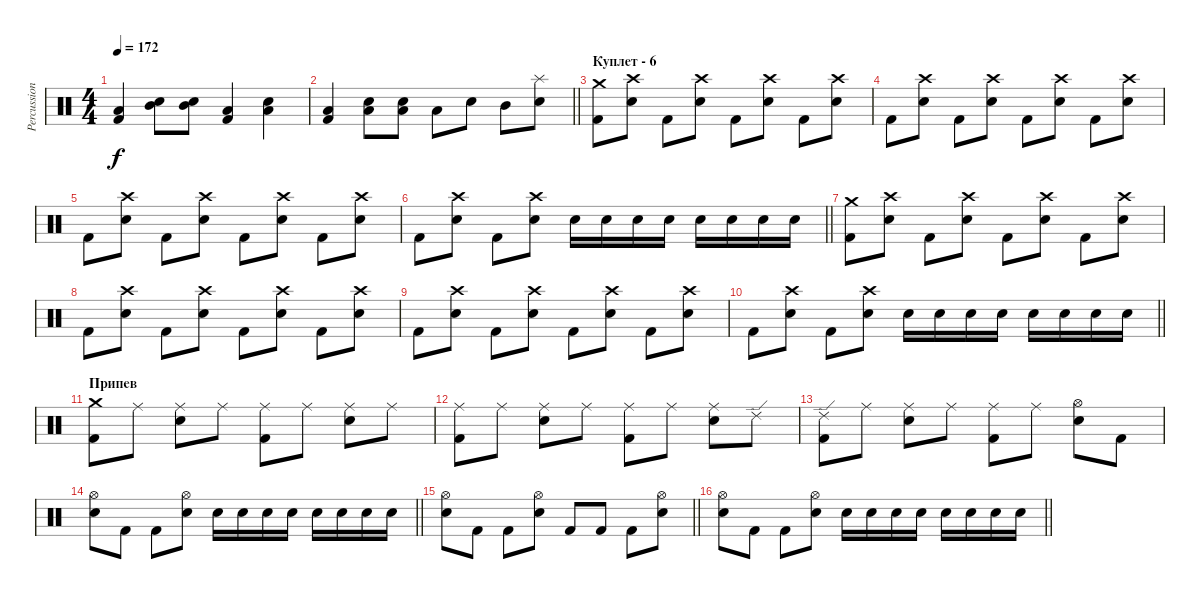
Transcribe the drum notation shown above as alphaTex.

\track ("Percussion" "Percussion") {instrument percussion}
\staff {score}
\articulation defaults
\ts (4 4)
\tempo 172
\clef neutral
\ks c
("Low Floor Tom (hit)" "Kick (hit) 2").4{dy f} ("Mid Tom (hit)" "Snare (hit) 2").8 ("Mid Tom (hit)" "Snare (hit) 2").8 ("Low Tom (hit)" "Kick (hit) 2").4 ("Low Floor Tom (hit)" "Snare (hit) 2").4 |
\barLineRight lightlight
("Low Tom (hit)" "Kick (hit) 2").4 ("Low Floor Tom (hit)" "Snare (hit) 2").8 ("Low Floor Tom (hit)" "Snare (hit) 2").8 "Low Tom (hit)".8 "Snare (hit) 2".8 "Mid Tom (hit)".8 ("Splash (hit)" "Snare (hit) 2").8 |
\section ("" "Куплет - 6")
("Crash medium (hit)" "Kick (hit) 2").8 ("Crash high (hit)" "Snare (hit) 2").8 "Kick (hit) 2".8 ("Crash high (hit)" "Snare (hit) 2").8 "Kick (hit) 2".8 ("Crash high (hit)" "Snare (hit) 2").8 "Kick (hit) 2".8 ("Crash high (hit)" "Snare (hit) 2").8 |
"Kick (hit) 2".8 ("Crash high (hit)" "Snare (hit) 2").8 "Kick (hit) 2".8 ("Crash high (hit)" "Snare (hit) 2").8 "Kick (hit) 2".8 ("Crash high (hit)" "Snare (hit) 2").8 "Kick (hit) 2".8 ("Crash high (hit)" "Snare (hit) 2").8 |
"Kick (hit) 2".8 ("Crash high (hit)" "Snare (hit) 2").8 "Kick (hit) 2".8 ("Crash high (hit)" "Snare (hit) 2").8 "Kick (hit) 2".8 ("Crash high (hit)" "Snare (hit) 2").8 "Kick (hit) 2".8 ("Crash high (hit)" "Snare (hit) 2").8 |
\barLineRight lightlight "Kick (hit) 2".8
("Crash high (hit)" "Snare (hit) 2").8 "Kick (hit) 2".8 ("Crash high (hit)" "Snare (hit) 2").8 "Snare (hit) 2".16 "Snare (hit) 2".16 "Snare (hit) 2".16 "Snare (hit) 2".16 "Snare (hit) 2".16 "Snare (hit) 2".16 "Snare (hit) 2".16 "Snare (hit) 2".16 |
("Crash medium (hit)" "Kick (hit) 2").8 ("Crash high (hit)" "Snare (hit) 2").8 "Kick (hit) 2".8 ("Crash high (hit)" "Snare (hit) 2").8 "Kick (hit) 2".8 ("Crash high (hit)" "Snare (hit) 2").8 "Kick (hit) 2".8 ("Crash high (hit)" "Snare (hit) 2").8 |
"Kick (hit) 2".8 ("Crash high (hit)" "Snare (hit) 2").8 "Kick (hit) 2".8 ("Crash high (hit)" "Snare (hit) 2").8 "Kick (hit) 2".8 ("Crash high (hit)" "Snare (hit) 2").8 "Kick (hit) 2".8 ("Crash high (hit)" "Snare (hit) 2").8 |
"Kick (hit) 2".8 ("Crash high (hit)" "Snare (hit) 2").8 "Kick (hit) 2".8 ("Crash high (hit)" "Snare (hit) 2").8 "Kick (hit) 2".8 ("Crash high (hit)" "Snare (hit) 2").8 "Kick (hit) 2".8 ("Crash high (hit)" "Snare (hit) 2").8 |
\barLineRight lightlight "Kick (hit) 2".8
("Crash high (hit)" "Snare (hit) 2").8 "Kick (hit) 2".8 ("Crash high (hit)" "Snare (hit) 2").8 "Snare (hit) 2".16 "Snare (hit) 2".16 "Snare (hit) 2".16 "Snare (hit) 2".16 "Snare (hit) 2".16 "Snare (hit) 2".16 "Snare (hit) 2".16 "Snare (hit) 2".16 |
\section ("" "Припев")
("Crash medium (hit)" "Kick (hit) 2").8 "Ride (middle)".8 ("Ride (middle)" "Snare (hit) 2").8 "Ride (middle)".8 ("Ride (middle)" "Kick (hit) 2").8 "Ride (middle)".8 ("Ride (middle)" "Snare (hit) 2").8 "Ride (middle)".8 |
("Ride (middle)" "Kick (hit) 2").8 "Ride (middle)".8 ("Ride (middle)" "Snare (hit) 2").8 "Ride (middle)".8 ("Ride (middle)" "Kick (hit) 2").8 "Ride (middle)".8 ("Ride (middle)" "Snare (hit) 2").8 "Ride (edge) 2".8 |
("Ride (edge) 2" "Kick (hit) 2").8 "Ride (middle)".8 ("Ride (middle)" "Snare (hit) 2").8 "Ride (middle)".8 ("Ride (middle)" "Kick (hit) 2").8 "Ride (middle)".8 ("Snare (hit) 2" "Hi-Hat (open)").8 "Kick (hit) 2".8 |
\barLineRight lightlight
("Snare (hit) 2" "Hi-Hat (open)").8 "Kick (hit) 2".8 "Kick (hit) 2".8 ("Snare (hit) 2" "Hi-Hat (open)").8 "Snare (hit) 2".16 "Snare (hit) 2".16 "Snare (hit) 2".16 "Snare (hit) 2".16 "Snare (hit) 2".16 "Snare (hit) 2".16 "Snare (hit) 2".16 "Snare (hit) 2".16 |
\barLineRight lightlight
("Snare (hit) 2" "Hi-Hat (open)").8 "Kick (hit) 2".8 "Kick (hit) 2".8 ("Snare (hit) 2" "Hi-Hat (open)").8 "Kick (hit) 2".8 "Kick (hit) 2".8 "Kick (hit) 2".8 ("Snare (hit) 2" "Hi-Hat (open)").8 |
\barLineRight lightlight
("Snare (hit) 2" "Hi-Hat (open)").8 "Kick (hit) 2".8 "Kick (hit) 2".8 ("Snare (hit) 2" "Hi-Hat (open)").8 "Snare (hit) 2".16 "Snare (hit) 2".16 "Snare (hit) 2".16 "Snare (hit) 2".16 "Snare (hit) 2".16 "Snare (hit) 2".16 "Snare (hit) 2".16 "Snare (hit) 2".16
